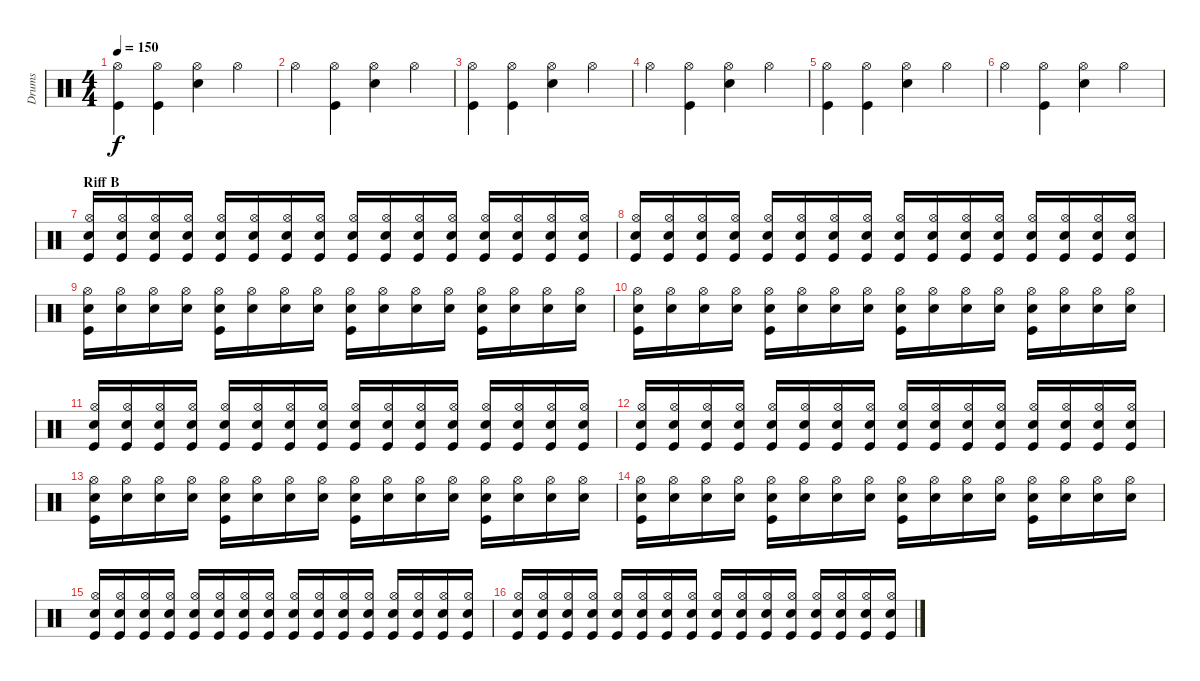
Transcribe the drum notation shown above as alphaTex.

\track ("Drums" "Drums") {instrument percussion}
\staff {score}
\articulation defaults
\ts (4 4)
\tempo 150
\clef neutral
\ks c
("Kick (hit)" "Hi-Hat (open)").4{dy f} ("Kick (hit)" "Hi-Hat (open)").4 ("Electric Snare (hit)" "Hi-Hat (open)").4 "Hi-Hat (open)".4 |
"Hi-Hat (open)".4 ("Kick (hit)" "Hi-Hat (open)").4 ("Electric Snare (hit)" "Hi-Hat (open)").4 "Hi-Hat (open)".4 |
("Kick (hit)" "Hi-Hat (open)").4 ("Kick (hit)" "Hi-Hat (open)").4 ("Electric Snare (hit)" "Hi-Hat (open)").4 "Hi-Hat (open)".4 |
"Hi-Hat (open)".4 ("Kick (hit)" "Hi-Hat (open)").4 ("Electric Snare (hit)" "Hi-Hat (open)").4 "Hi-Hat (open)".4 |
("Kick (hit)" "Hi-Hat (open)").4 ("Kick (hit)" "Hi-Hat (open)").4 ("Electric Snare (hit)" "Hi-Hat (open)").4 "Hi-Hat (open)".4 |
"Hi-Hat (open)".4 ("Kick (hit)" "Hi-Hat (open)").4 ("Electric Snare (hit)" "Hi-Hat (open)").4 "Hi-Hat (open)".4 |
\section ("" "Riff B")
("Kick (hit)" "Electric Snare (hit)" "Hi-Hat (open)").16 ("Kick (hit)" "Electric Snare (hit)" "Hi-Hat (open)").16 ("Kick (hit)" "Electric Snare (hit)" "Hi-Hat (open)").16 ("Kick (hit)" "Electric Snare (hit)" "Hi-Hat (open)").16 ("Kick (hit)" "Electric Snare (hit)" "Hi-Hat (open)").16 ("Kick (hit)" "Electric Snare (hit)" "Hi-Hat (open)").16 ("Kick (hit)" "Electric Snare (hit)" "Hi-Hat (open)").16 ("Kick (hit)" "Electric Snare (hit)" "Hi-Hat (open)").16 ("Kick (hit)" "Electric Snare (hit)" "Hi-Hat (open)").16 ("Kick (hit)" "Electric Snare (hit)" "Hi-Hat (open)").16 ("Kick (hit)" "Electric Snare (hit)" "Hi-Hat (open)").16 ("Kick (hit)" "Electric Snare (hit)" "Hi-Hat (open)").16 ("Kick (hit)" "Electric Snare (hit)" "Hi-Hat (open)").16 ("Kick (hit)" "Electric Snare (hit)" "Hi-Hat (open)").16 ("Kick (hit)" "Electric Snare (hit)" "Hi-Hat (open)").16 ("Kick (hit)" "Electric Snare (hit)" "Hi-Hat (open)").16 |
("Kick (hit)" "Electric Snare (hit)" "Hi-Hat (open)").16 ("Kick (hit)" "Electric Snare (hit)" "Hi-Hat (open)").16 ("Kick (hit)" "Electric Snare (hit)" "Hi-Hat (open)").16 ("Kick (hit)" "Electric Snare (hit)" "Hi-Hat (open)").16 ("Kick (hit)" "Electric Snare (hit)" "Hi-Hat (open)").16 ("Kick (hit)" "Electric Snare (hit)" "Hi-Hat (open)").16 ("Kick (hit)" "Electric Snare (hit)" "Hi-Hat (open)").16 ("Kick (hit)" "Electric Snare (hit)" "Hi-Hat (open)").16 ("Kick (hit)" "Electric Snare (hit)" "Hi-Hat (open)").16 ("Kick (hit)" "Electric Snare (hit)" "Hi-Hat (open)").16 ("Kick (hit)" "Electric Snare (hit)" "Hi-Hat (open)").16 ("Kick (hit)" "Electric Snare (hit)" "Hi-Hat (open)").16 ("Kick (hit)" "Electric Snare (hit)" "Hi-Hat (open)").16 ("Kick (hit)" "Electric Snare (hit)" "Hi-Hat (open)").16 ("Kick (hit)" "Electric Snare (hit)" "Hi-Hat (open)").16 ("Kick (hit)" "Electric Snare (hit)" "Hi-Hat (open)").16 |
("Kick (hit)" "Electric Snare (hit)" "Hi-Hat (open)").16 ("Electric Snare (hit)" "Hi-Hat (open)").16 ("Electric Snare (hit)" "Hi-Hat (open)").16 ("Electric Snare (hit)" "Hi-Hat (open)").16 ("Kick (hit)" "Electric Snare (hit)" "Hi-Hat (open)").16 ("Electric Snare (hit)" "Hi-Hat (open)").16 ("Electric Snare (hit)" "Hi-Hat (open)").16 ("Electric Snare (hit)" "Hi-Hat (open)").16 ("Kick (hit)" "Electric Snare (hit)" "Hi-Hat (open)").16 ("Electric Snare (hit)" "Hi-Hat (open)").16 ("Electric Snare (hit)" "Hi-Hat (open)").16 ("Electric Snare (hit)" "Hi-Hat (open)").16 ("Kick (hit)" "Electric Snare (hit)" "Hi-Hat (open)").16 ("Electric Snare (hit)" "Hi-Hat (open)").16 ("Electric Snare (hit)" "Hi-Hat (open)").16 ("Electric Snare (hit)" "Hi-Hat (open)").16 |
("Kick (hit)" "Electric Snare (hit)" "Hi-Hat (open)").16 ("Electric Snare (hit)" "Hi-Hat (open)").16 ("Electric Snare (hit)" "Hi-Hat (open)").16 ("Electric Snare (hit)" "Hi-Hat (open)").16 ("Kick (hit)" "Electric Snare (hit)" "Hi-Hat (open)").16 ("Electric Snare (hit)" "Hi-Hat (open)").16 ("Electric Snare (hit)" "Hi-Hat (open)").16 ("Electric Snare (hit)" "Hi-Hat (open)").16 ("Kick (hit)" "Electric Snare (hit)" "Hi-Hat (open)").16 ("Electric Snare (hit)" "Hi-Hat (open)").16 ("Electric Snare (hit)" "Hi-Hat (open)").16 ("Electric Snare (hit)" "Hi-Hat (open)").16 ("Kick (hit)" "Electric Snare (hit)" "Hi-Hat (open)").16 ("Electric Snare (hit)" "Hi-Hat (open)").16 ("Electric Snare (hit)" "Hi-Hat (open)").16 ("Electric Snare (hit)" "Hi-Hat (open)").16 |
("Kick (hit)" "Electric Snare (hit)" "Hi-Hat (open)").16 ("Kick (hit)" "Electric Snare (hit)" "Hi-Hat (open)").16 ("Kick (hit)" "Electric Snare (hit)" "Hi-Hat (open)").16 ("Kick (hit)" "Electric Snare (hit)" "Hi-Hat (open)").16 ("Kick (hit)" "Electric Snare (hit)" "Hi-Hat (open)").16 ("Kick (hit)" "Electric Snare (hit)" "Hi-Hat (open)").16 ("Kick (hit)" "Electric Snare (hit)" "Hi-Hat (open)").16 ("Kick (hit)" "Electric Snare (hit)" "Hi-Hat (open)").16 ("Kick (hit)" "Electric Snare (hit)" "Hi-Hat (open)").16 ("Kick (hit)" "Electric Snare (hit)" "Hi-Hat (open)").16 ("Kick (hit)" "Electric Snare (hit)" "Hi-Hat (open)").16 ("Kick (hit)" "Electric Snare (hit)" "Hi-Hat (open)").16 ("Kick (hit)" "Electric Snare (hit)" "Hi-Hat (open)").16 ("Kick (hit)" "Electric Snare (hit)" "Hi-Hat (open)").16 ("Kick (hit)" "Electric Snare (hit)" "Hi-Hat (open)").16 ("Kick (hit)" "Electric Snare (hit)" "Hi-Hat (open)").16 |
("Kick (hit)" "Electric Snare (hit)" "Hi-Hat (open)").16 ("Kick (hit)" "Electric Snare (hit)" "Hi-Hat (open)").16 ("Kick (hit)" "Electric Snare (hit)" "Hi-Hat (open)").16 ("Kick (hit)" "Electric Snare (hit)" "Hi-Hat (open)").16 ("Kick (hit)" "Electric Snare (hit)" "Hi-Hat (open)").16 ("Kick (hit)" "Electric Snare (hit)" "Hi-Hat (open)").16 ("Kick (hit)" "Electric Snare (hit)" "Hi-Hat (open)").16 ("Kick (hit)" "Electric Snare (hit)" "Hi-Hat (open)").16 ("Kick (hit)" "Electric Snare (hit)" "Hi-Hat (open)").16 ("Kick (hit)" "Electric Snare (hit)" "Hi-Hat (open)").16 ("Kick (hit)" "Electric Snare (hit)" "Hi-Hat (open)").16 ("Kick (hit)" "Electric Snare (hit)" "Hi-Hat (open)").16 ("Kick (hit)" "Electric Snare (hit)" "Hi-Hat (open)").16 ("Kick (hit)" "Electric Snare (hit)" "Hi-Hat (open)").16 ("Kick (hit)" "Electric Snare (hit)" "Hi-Hat (open)").16 ("Kick (hit)" "Electric Snare (hit)" "Hi-Hat (open)").16 |
("Kick (hit)" "Electric Snare (hit)" "Hi-Hat (open)").16 ("Electric Snare (hit)" "Hi-Hat (open)").16 ("Electric Snare (hit)" "Hi-Hat (open)").16 ("Electric Snare (hit)" "Hi-Hat (open)").16 ("Kick (hit)" "Electric Snare (hit)" "Hi-Hat (open)").16 ("Electric Snare (hit)" "Hi-Hat (open)").16 ("Electric Snare (hit)" "Hi-Hat (open)").16 ("Electric Snare (hit)" "Hi-Hat (open)").16 ("Kick (hit)" "Electric Snare (hit)" "Hi-Hat (open)").16 ("Electric Snare (hit)" "Hi-Hat (open)").16 ("Electric Snare (hit)" "Hi-Hat (open)").16 ("Electric Snare (hit)" "Hi-Hat (open)").16 ("Kick (hit)" "Electric Snare (hit)" "Hi-Hat (open)").16 ("Electric Snare (hit)" "Hi-Hat (open)").16 ("Electric Snare (hit)" "Hi-Hat (open)").16 ("Electric Snare (hit)" "Hi-Hat (open)").16 |
("Kick (hit)" "Electric Snare (hit)" "Hi-Hat (open)").16 ("Electric Snare (hit)" "Hi-Hat (open)").16 ("Electric Snare (hit)" "Hi-Hat (open)").16 ("Electric Snare (hit)" "Hi-Hat (open)").16 ("Kick (hit)" "Electric Snare (hit)" "Hi-Hat (open)").16 ("Electric Snare (hit)" "Hi-Hat (open)").16 ("Electric Snare (hit)" "Hi-Hat (open)").16 ("Electric Snare (hit)" "Hi-Hat (open)").16 ("Kick (hit)" "Electric Snare (hit)" "Hi-Hat (open)").16 ("Electric Snare (hit)" "Hi-Hat (open)").16 ("Electric Snare (hit)" "Hi-Hat (open)").16 ("Electric Snare (hit)" "Hi-Hat (open)").16 ("Kick (hit)" "Electric Snare (hit)" "Hi-Hat (open)").16 ("Electric Snare (hit)" "Hi-Hat (open)").16 ("Electric Snare (hit)" "Hi-Hat (open)").16 ("Electric Snare (hit)" "Hi-Hat (open)").16 |
("Kick (hit)" "Electric Snare (hit)" "Hi-Hat (open)").16 ("Kick (hit)" "Electric Snare (hit)" "Hi-Hat (open)").16 ("Kick (hit)" "Electric Snare (hit)" "Hi-Hat (open)").16 ("Kick (hit)" "Electric Snare (hit)" "Hi-Hat (open)").16 ("Kick (hit)" "Electric Snare (hit)" "Hi-Hat (open)").16 ("Kick (hit)" "Electric Snare (hit)" "Hi-Hat (open)").16 ("Kick (hit)" "Electric Snare (hit)" "Hi-Hat (open)").16 ("Kick (hit)" "Electric Snare (hit)" "Hi-Hat (open)").16 ("Kick (hit)" "Electric Snare (hit)" "Hi-Hat (open)").16 ("Kick (hit)" "Electric Snare (hit)" "Hi-Hat (open)").16 ("Kick (hit)" "Electric Snare (hit)" "Hi-Hat (open)").16 ("Kick (hit)" "Electric Snare (hit)" "Hi-Hat (open)").16 ("Kick (hit)" "Electric Snare (hit)" "Hi-Hat (open)").16 ("Kick (hit)" "Electric Snare (hit)" "Hi-Hat (open)").16 ("Kick (hit)" "Electric Snare (hit)" "Hi-Hat (open)").16 ("Kick (hit)" "Electric Snare (hit)" "Hi-Hat (open)").16 |
("Kick (hit)" "Electric Snare (hit)" "Hi-Hat (open)").16 ("Kick (hit)" "Electric Snare (hit)" "Hi-Hat (open)").16 ("Kick (hit)" "Electric Snare (hit)" "Hi-Hat (open)").16 ("Kick (hit)" "Electric Snare (hit)" "Hi-Hat (open)").16 ("Kick (hit)" "Electric Snare (hit)" "Hi-Hat (open)").16 ("Kick (hit)" "Electric Snare (hit)" "Hi-Hat (open)").16 ("Kick (hit)" "Electric Snare (hit)" "Hi-Hat (open)").16 ("Kick (hit)" "Electric Snare (hit)" "Hi-Hat (open)").16 ("Kick (hit)" "Electric Snare (hit)" "Hi-Hat (open)").16 ("Kick (hit)" "Electric Snare (hit)" "Hi-Hat (open)").16 ("Kick (hit)" "Electric Snare (hit)" "Hi-Hat (open)").16 ("Kick (hit)" "Electric Snare (hit)" "Hi-Hat (open)").16 ("Kick (hit)" "Electric Snare (hit)" "Hi-Hat (open)").16 ("Kick (hit)" "Electric Snare (hit)" "Hi-Hat (open)").16 ("Kick (hit)" "Electric Snare (hit)" "Hi-Hat (open)").16 ("Kick (hit)" "Electric Snare (hit)" "Hi-Hat (open)").16
